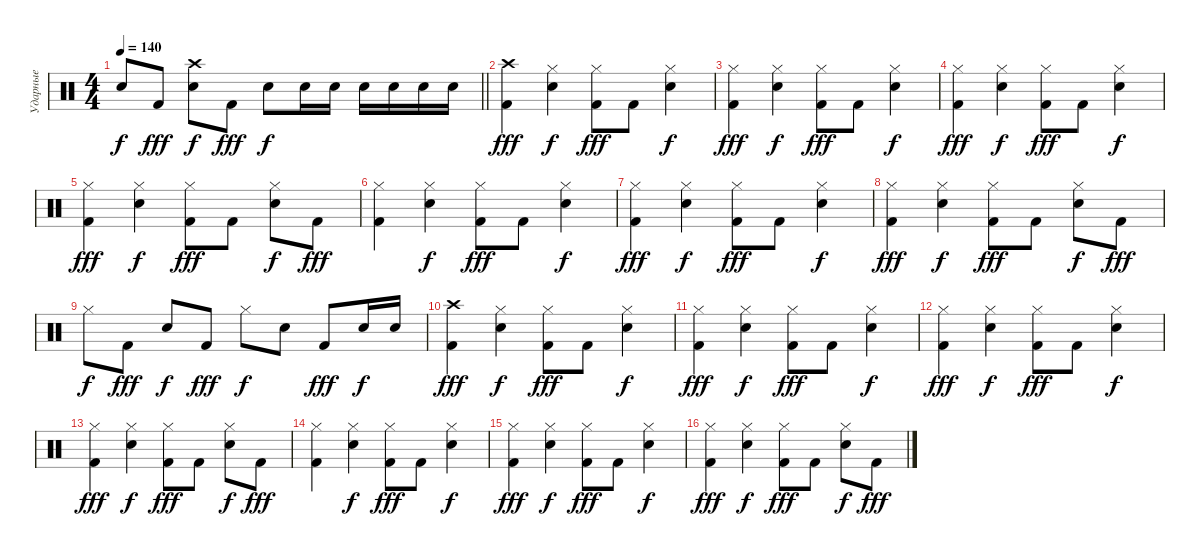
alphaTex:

\track ("Ударные" "Ударные") {instrument percussion}
\staff {score}
\articulation defaults
\ts (4 4)
\tempo 140
\clef neutral
\barLineRight lightlight
\ks c "Snare (hit)"{t}.8{dy f} "Kick (hit) 2".8{dy fff}
("Snare (hit) 2" "Crash high (hit)").8{dy f} "Kick (hit) 2".8{dy fff} "Snare (hit) 2".8{dy f} "Snare (hit) 2".16 "Snare (hit) 2".16 "Snare (hit) 2".16 "Snare (hit) 2".16 "Snare (hit) 2".16 "Snare (hit) 2".16 |
("Kick (hit) 2" "Crash high (hit)").4{dy fff} ("Snare (hit) 2" "Hi-Hat (closed)").4{dy f} ("Kick (hit) 2" "Hi-Hat (closed)").8{dy fff} "Kick (hit) 2".8 ("Snare (hit) 2" "Hi-Hat (closed)").4{dy f} |
("Kick (hit) 2" "Hi-Hat (closed)").4{dy fff} ("Snare (hit) 2" "Hi-Hat (closed)").4{dy f} ("Kick (hit) 2" "Hi-Hat (closed)").8{dy fff} "Kick (hit) 2".8 ("Snare (hit) 2" "Hi-Hat (closed)").4{dy f} |
("Kick (hit) 2" "Hi-Hat (closed)").4{dy fff} ("Snare (hit) 2" "Hi-Hat (closed)").4{dy f} ("Kick (hit) 2" "Hi-Hat (closed)").8{dy fff} "Kick (hit) 2".8 ("Snare (hit) 2" "Hi-Hat (closed)").4{dy f} |
("Kick (hit) 2" "Hi-Hat (closed)").4{dy fff} ("Snare (hit) 2" "Hi-Hat (closed)").4{dy f} ("Kick (hit) 2" "Hi-Hat (closed)").8{dy fff} "Kick (hit) 2".8 ("Snare (hit) 2" "Hi-Hat (closed)").8{dy f} "Kick (hit) 2".8{dy fff} |
("Kick (hit) 2" "Hi-Hat (closed)").4 ("Snare (hit) 2" "Hi-Hat (closed)").4{dy f} ("Kick (hit) 2" "Hi-Hat (closed)").8{dy fff} "Kick (hit) 2".8 ("Snare (hit) 2" "Hi-Hat (closed)").4{dy f} |
("Kick (hit) 2" "Hi-Hat (closed)").4{dy fff} ("Snare (hit) 2" "Hi-Hat (closed)").4{dy f} ("Kick (hit) 2" "Hi-Hat (closed)").8{dy fff} "Kick (hit) 2".8 ("Snare (hit) 2" "Hi-Hat (closed)").4{dy f} |
("Kick (hit) 2" "Hi-Hat (closed)").4{dy fff} ("Snare (hit) 2" "Hi-Hat (closed)").4{dy f} ("Kick (hit) 2" "Hi-Hat (closed)").8{dy fff} "Kick (hit) 2".8 ("Snare (hit) 2" "Hi-Hat (closed)").8{dy f} "Kick (hit) 2".8{dy fff} |
"Hi-Hat (closed)".8{dy f} "Kick (hit) 2".8{dy fff} "Snare (hit) 2".8{dy f} "Kick (hit) 2".8{dy fff} "Hi-Hat (closed)".8{dy f} "Snare (hit) 2".8 "Kick (hit) 2".8{dy fff} "Snare (hit) 2".16{dy f} "Snare (hit) 2".16 |
("Kick (hit) 2" "Crash high (hit)").4{dy fff} ("Snare (hit) 2" "Hi-Hat (closed)").4{dy f} ("Kick (hit) 2" "Hi-Hat (closed)").8{dy fff} "Kick (hit) 2".8 ("Snare (hit) 2" "Hi-Hat (closed)").4{dy f} |
("Kick (hit) 2" "Hi-Hat (closed)").4{dy fff} ("Snare (hit) 2" "Hi-Hat (closed)").4{dy f} ("Kick (hit) 2" "Hi-Hat (closed)").8{dy fff} "Kick (hit) 2".8 ("Snare (hit) 2" "Hi-Hat (closed)").4{dy f} |
("Kick (hit) 2" "Hi-Hat (closed)").4{dy fff} ("Snare (hit) 2" "Hi-Hat (closed)").4{dy f} ("Kick (hit) 2" "Hi-Hat (closed)").8{dy fff} "Kick (hit) 2".8 ("Snare (hit) 2" "Hi-Hat (closed)").4{dy f} |
("Kick (hit) 2" "Hi-Hat (closed)").4{dy fff} ("Snare (hit) 2" "Hi-Hat (closed)").4{dy f} ("Kick (hit) 2" "Hi-Hat (closed)").8{dy fff} "Kick (hit) 2".8 ("Snare (hit) 2" "Hi-Hat (closed)").8{dy f} "Kick (hit) 2".8{dy fff} |
("Kick (hit) 2" "Hi-Hat (closed)").4 ("Snare (hit) 2" "Hi-Hat (closed)").4{dy f} ("Kick (hit) 2" "Hi-Hat (closed)").8{dy fff} "Kick (hit) 2".8 ("Snare (hit) 2" "Hi-Hat (closed)").4{dy f} |
("Kick (hit) 2" "Hi-Hat (closed)").4{dy fff} ("Snare (hit) 2" "Hi-Hat (closed)").4{dy f} ("Kick (hit) 2" "Hi-Hat (closed)").8{dy fff} "Kick (hit) 2".8 ("Snare (hit) 2" "Hi-Hat (closed)").4{dy f} |
("Kick (hit) 2" "Hi-Hat (closed)").4{dy fff} ("Snare (hit) 2" "Hi-Hat (closed)").4{dy f} ("Kick (hit) 2" "Hi-Hat (closed)").8{dy fff} "Kick (hit) 2".8 ("Snare (hit) 2" "Hi-Hat (closed)").8{dy f} "Kick (hit) 2".8{dy fff}
